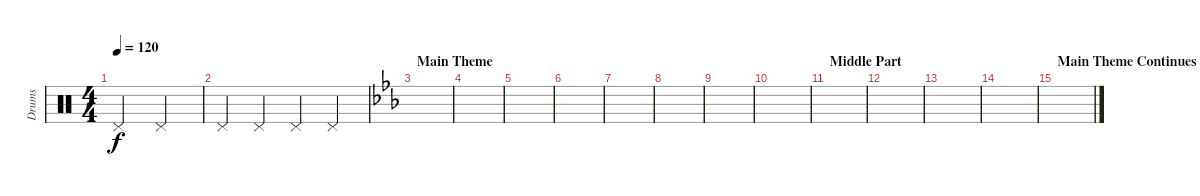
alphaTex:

\track ("Drums" "Drums") {instrument percussion}
\staff {score}
\articulation defaults
\ts (4 4)
\tempo 120
\clef neutral
\ks c "Pedal Hi-Hat (hit)".2{dy f} "Pedal Hi-Hat (hit)".2
|
"Pedal Hi-Hat (hit)".4 "Pedal Hi-Hat (hit)".4 "Pedal Hi-Hat (hit)".4 "Pedal Hi-Hat (hit)".4 |
\section ("" "Main Theme")
\ks cminor
|
|
|
|
|
|
|
|
\section ("" "Middle Part")
|
|
|
|
\section ("" "Main Theme Continues")
